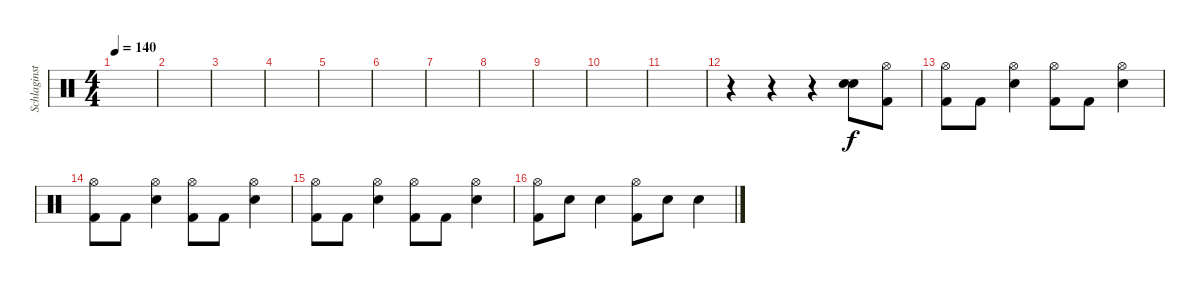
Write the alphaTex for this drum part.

\track ("Schlaginstrumente - Auswahl" "Schlaginst") {instrument percussion}
\staff {score}
\articulation defaults
\ts (4 4)
\tempo 140
\clef neutral
\ks c
|
|
|
|
|
|
|
|
|
|
|
r.4 r.4 r.4 ("Snare (hit) 2" "Snare (hit) 2").8{bu 480} ("Hi-Hat (open)" "Kick (hit) 2").8 |
("Hi-Hat (open)" "Kick (hit) 2").8 "Kick (hit) 2".8 ("Hi-Hat (open)" "Snare (hit) 2").4 ("Hi-Hat (open)" "Kick (hit) 2").8 "Kick (hit) 2".8 ("Hi-Hat (open)" "Snare (hit) 2").4 |
("Hi-Hat (open)" "Kick (hit) 2").8 "Kick (hit) 2".8 ("Hi-Hat (open)" "Snare (hit) 2").4 ("Hi-Hat (open)" "Kick (hit) 2").8 "Kick (hit) 2".8 ("Hi-Hat (open)" "Snare (hit) 2").4 |
("Hi-Hat (open)" "Kick (hit) 2").8 "Kick (hit) 2".8 ("Hi-Hat (open)" "Snare (hit) 2").4 ("Hi-Hat (open)" "Kick (hit) 2").8 "Kick (hit) 2".8 ("Hi-Hat (open)" "Snare (hit) 2").4 |
("Hi-Hat (open)" "Kick (hit) 2").8 "Snare (hit) 2".8 "Snare (hit) 2".4 ("Hi-Hat (open)" "Kick (hit) 2").8 "Snare (hit) 2".8 "Snare (hit) 2".4
